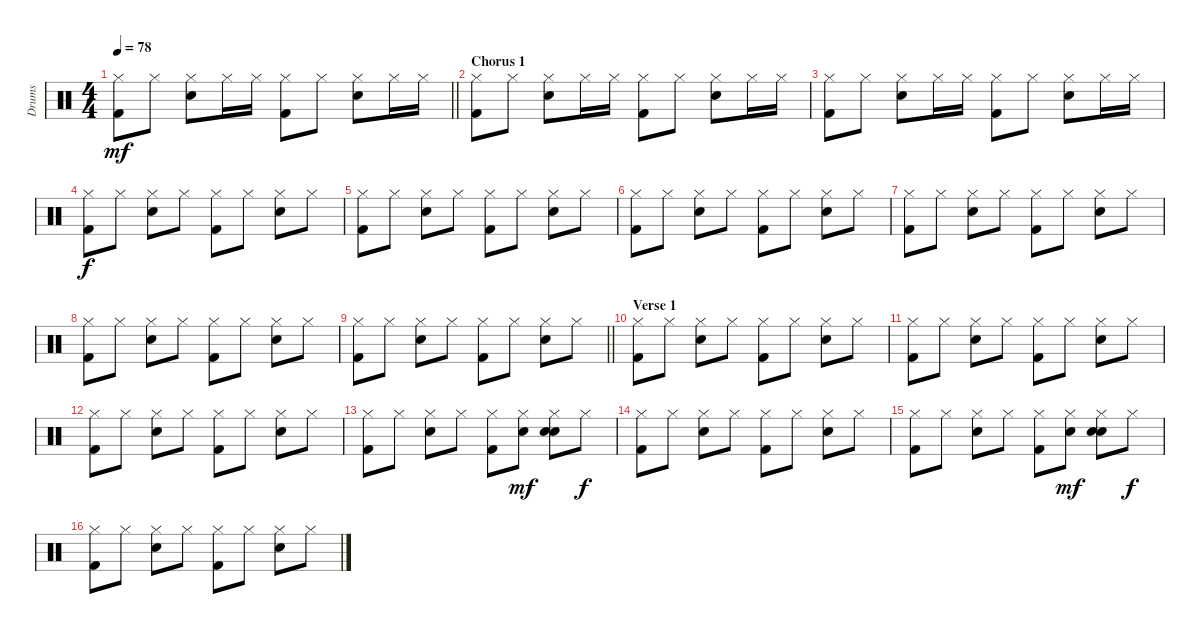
\track ("Drums" "Drums") {instrument percussion}
\staff {score}
\articulation defaults
\ts (4 4)
\tempo 78
\clef neutral
\barLineRight lightlight
\ks c
("Hi-Hat (closed)" "Kick (hit) 2").8{dy mf} "Hi-Hat (closed)".8 ("Hi-Hat (closed)" "Snare (hit) 2").8 "Hi-Hat (closed)".16 "Hi-Hat (closed)".16 ("Hi-Hat (closed)" "Kick (hit) 2").8 "Hi-Hat (closed)".8 ("Hi-Hat (closed)" "Snare (hit) 2").8 "Hi-Hat (closed)".16 "Hi-Hat (closed)".16 |
\section ("" "Chorus 1")
("Hi-Hat (closed)" "Kick (hit) 2").8 "Hi-Hat (closed)".8 ("Hi-Hat (closed)" "Snare (hit) 2").8 "Hi-Hat (closed)".16 "Hi-Hat (closed)".16 ("Hi-Hat (closed)" "Kick (hit) 2").8 "Hi-Hat (closed)".8 ("Hi-Hat (closed)" "Snare (hit) 2").8 "Hi-Hat (closed)".16 "Hi-Hat (closed)".16 |
("Hi-Hat (closed)" "Kick (hit) 2").8 "Hi-Hat (closed)".8 ("Hi-Hat (closed)" "Snare (hit) 2").8 "Hi-Hat (closed)".16 "Hi-Hat (closed)".16 ("Hi-Hat (closed)" "Kick (hit) 2").8 "Hi-Hat (closed)".8 ("Hi-Hat (closed)" "Snare (hit) 2").8 "Hi-Hat (closed)".16 "Hi-Hat (closed)".16 |
("Hi-Hat (closed)" "Kick (hit) 2").8{dy f} "Hi-Hat (closed)".8 ("Hi-Hat (closed)" "Snare (hit) 2").8 "Hi-Hat (closed)".8 ("Hi-Hat (closed)" "Kick (hit) 2").8 "Hi-Hat (closed)".8 ("Hi-Hat (closed)" "Snare (hit) 2").8 "Hi-Hat (closed)".8 |
("Hi-Hat (closed)" "Kick (hit) 2").8 "Hi-Hat (closed)".8 ("Hi-Hat (closed)" "Snare (hit) 2").8 "Hi-Hat (closed)".8 ("Hi-Hat (closed)" "Kick (hit) 2").8 "Hi-Hat (closed)".8 ("Hi-Hat (closed)" "Snare (hit) 2").8 "Hi-Hat (closed)".8 |
("Hi-Hat (closed)" "Kick (hit) 2").8 "Hi-Hat (closed)".8 ("Hi-Hat (closed)" "Snare (hit) 2").8 "Hi-Hat (closed)".8 ("Hi-Hat (closed)" "Kick (hit) 2").8 "Hi-Hat (closed)".8 ("Hi-Hat (closed)" "Snare (hit) 2").8 "Hi-Hat (closed)".8 |
("Hi-Hat (closed)" "Kick (hit) 2").8 "Hi-Hat (closed)".8 ("Hi-Hat (closed)" "Snare (hit) 2").8 "Hi-Hat (closed)".8 ("Hi-Hat (closed)" "Kick (hit) 2").8 "Hi-Hat (closed)".8 ("Hi-Hat (closed)" "Snare (hit) 2").8 "Hi-Hat (closed)".8 |
("Hi-Hat (closed)" "Kick (hit) 2").8 "Hi-Hat (closed)".8 ("Hi-Hat (closed)" "Snare (hit) 2").8 "Hi-Hat (closed)".8 ("Hi-Hat (closed)" "Kick (hit) 2").8 "Hi-Hat (closed)".8 ("Hi-Hat (closed)" "Snare (hit) 2").8 "Hi-Hat (closed)".8 |
\barLineRight lightlight
("Hi-Hat (closed)" "Kick (hit) 2").8 "Hi-Hat (closed)".8 ("Hi-Hat (closed)" "Snare (hit) 2").8 "Hi-Hat (closed)".8 ("Hi-Hat (closed)" "Kick (hit) 2").8 "Hi-Hat (closed)".8 ("Hi-Hat (closed)" "Snare (hit) 2").8 "Hi-Hat (closed)".8 |
\section ("" "Verse 1")
("Hi-Hat (closed)" "Kick (hit) 2").8 "Hi-Hat (closed)".8 ("Hi-Hat (closed)" "Snare (hit) 2").8 "Hi-Hat (closed)".8 ("Hi-Hat (closed)" "Kick (hit) 2").8 "Hi-Hat (closed)".8 ("Hi-Hat (closed)" "Snare (hit) 2").8 "Hi-Hat (closed)".8 |
("Hi-Hat (closed)" "Kick (hit) 2").8 "Hi-Hat (closed)".8 ("Hi-Hat (closed)" "Snare (hit) 2").8 "Hi-Hat (closed)".8 ("Hi-Hat (closed)" "Kick (hit) 2").8 "Hi-Hat (closed)".8 ("Hi-Hat (closed)" "Snare (hit) 2").8 "Hi-Hat (closed)".8 |
("Hi-Hat (closed)" "Kick (hit) 2").8 "Hi-Hat (closed)".8 ("Hi-Hat (closed)" "Snare (hit) 2").8 "Hi-Hat (closed)".8 ("Hi-Hat (closed)" "Kick (hit) 2").8 "Hi-Hat (closed)".8 ("Hi-Hat (closed)" "Snare (hit) 2").8 "Hi-Hat (closed)".8 |
("Hi-Hat (closed)" "Kick (hit) 2").8 "Hi-Hat (closed)".8 ("Hi-Hat (closed)" "Snare (hit) 2").8 "Hi-Hat (closed)".8 ("Hi-Hat (closed)" "Kick (hit) 2").8 ("Hi-Hat (closed)" "Hand Clap (hit)").8{dy mf} ("Hi-Hat (closed)" "Snare (hit) 2" "Hand Clap (hit)").8 "Hi-Hat (closed)".8{dy f} |
("Hi-Hat (closed)" "Kick (hit) 2").8 "Hi-Hat (closed)".8 ("Hi-Hat (closed)" "Snare (hit) 2").8 "Hi-Hat (closed)".8 ("Hi-Hat (closed)" "Kick (hit) 2").8 "Hi-Hat (closed)".8 ("Hi-Hat (closed)" "Snare (hit) 2").8 "Hi-Hat (closed)".8 |
("Hi-Hat (closed)" "Kick (hit) 2").8 "Hi-Hat (closed)".8 ("Hi-Hat (closed)" "Snare (hit) 2").8 "Hi-Hat (closed)".8 ("Hi-Hat (closed)" "Kick (hit) 2").8 ("Hi-Hat (closed)" "Hand Clap (hit)").8{dy mf} ("Hi-Hat (closed)" "Snare (hit) 2" "Hand Clap (hit)").8 "Hi-Hat (closed)".8{dy f} |
("Hi-Hat (closed)" "Kick (hit) 2").8 "Hi-Hat (closed)".8 ("Hi-Hat (closed)" "Snare (hit) 2").8 "Hi-Hat (closed)".8 ("Hi-Hat (closed)" "Kick (hit) 2").8 "Hi-Hat (closed)".8 ("Hi-Hat (closed)" "Snare (hit) 2").8 "Hi-Hat (closed)".8
